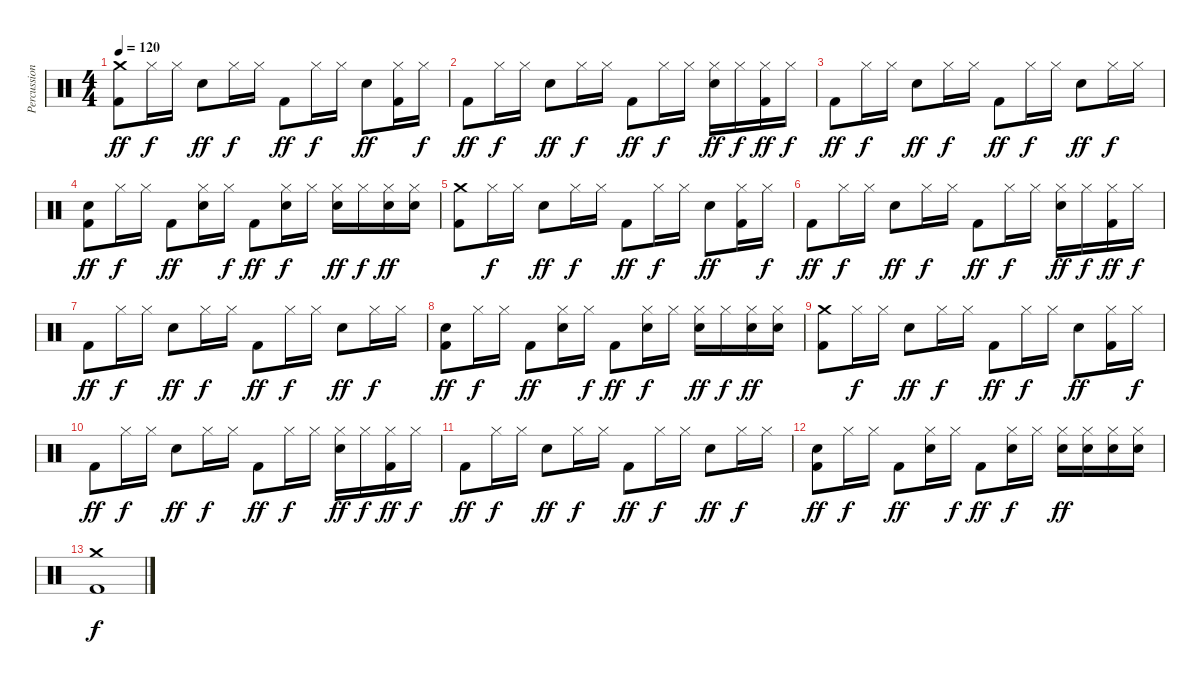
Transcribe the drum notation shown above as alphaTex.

\track ("Percussion" "Percussion") {instrument percussion}
\staff {score}
\articulation defaults
\ts (4 4)
\tempo 120
\clef neutral
\ks c
("Crash medium (hit)" "Kick (hit) 2").8{dy ff} "Hi-Hat (closed)".16{dy f} "Hi-Hat (closed)".16 "Electric Snare (hit)".8{dy ff} "Hi-Hat (closed)".16{dy f} "Hi-Hat (closed)".16 "Kick (hit) 2".8{dy ff} "Hi-Hat (closed)".16{dy f} "Hi-Hat (closed)".16 "Electric Snare (hit)".8{dy ff} ("Hi-Hat (closed)" "Kick (hit) 2").16 "Hi-Hat (closed)".16{dy f} |
"Kick (hit) 2".8{dy ff} "Hi-Hat (closed)".16{dy f} "Hi-Hat (closed)".16 "Electric Snare (hit)".8{dy ff} "Hi-Hat (closed)".16{dy f} "Hi-Hat (closed)".16 "Kick (hit) 2".8{dy ff} "Hi-Hat (closed)".16{dy f} "Hi-Hat (closed)".16 ("Hi-Hat (closed)" "Electric Snare (hit)").16{dy ff} "Hi-Hat (closed)".16{dy f} ("Hi-Hat (closed)" "Kick (hit) 2").16{dy ff} "Hi-Hat (closed)".16{dy f} |
"Kick (hit) 2".8{dy ff} "Hi-Hat (closed)".16{dy f} "Hi-Hat (closed)".16 "Electric Snare (hit)".8{dy ff} "Hi-Hat (closed)".16{dy f} "Hi-Hat (closed)".16 "Kick (hit) 2".8{dy ff} "Hi-Hat (closed)".16{dy f} "Hi-Hat (closed)".16 "Electric Snare (hit)".8{dy ff} "Hi-Hat (closed)".16{dy f} "Hi-Hat (closed)".16 |
("Electric Snare (hit)" "Kick (hit) 2").8{dy ff} "Hi-Hat (closed)".16{dy f} "Hi-Hat (closed)".16 "Kick (hit) 2".8{dy ff} ("Hi-Hat (closed)" "Electric Snare (hit)").16 "Hi-Hat (closed)".16{dy f} "Kick (hit) 2".8{dy ff} ("Hi-Hat (closed)" "Electric Snare (hit)").16{dy f} "Hi-Hat (closed)".16 ("Hi-Hat (closed)" "Electric Snare (hit)").16{dy ff} "Hi-Hat (closed)".16{dy f} ("Hi-Hat (closed)" "Electric Snare (hit)").16{dy ff} ("Hi-Hat (closed)" "Electric Snare (hit)").16 |
("Crash medium (hit)" "Kick (hit) 2").8 "Hi-Hat (closed)".16{dy f} "Hi-Hat (closed)".16 "Electric Snare (hit)".8{dy ff} "Hi-Hat (closed)".16{dy f} "Hi-Hat (closed)".16 "Kick (hit) 2".8{dy ff} "Hi-Hat (closed)".16{dy f} "Hi-Hat (closed)".16 "Electric Snare (hit)".8{dy ff} ("Hi-Hat (closed)" "Kick (hit) 2").16 "Hi-Hat (closed)".16{dy f} |
"Kick (hit) 2".8{dy ff} "Hi-Hat (closed)".16{dy f} "Hi-Hat (closed)".16 "Electric Snare (hit)".8{dy ff} "Hi-Hat (closed)".16{dy f} "Hi-Hat (closed)".16 "Kick (hit) 2".8{dy ff} "Hi-Hat (closed)".16{dy f} "Hi-Hat (closed)".16 ("Hi-Hat (closed)" "Electric Snare (hit)").16{dy ff} "Hi-Hat (closed)".16{dy f} ("Hi-Hat (closed)" "Kick (hit) 2").16{dy ff} "Hi-Hat (closed)".16{dy f} |
"Kick (hit) 2".8{dy ff} "Hi-Hat (closed)".16{dy f} "Hi-Hat (closed)".16 "Electric Snare (hit)".8{dy ff} "Hi-Hat (closed)".16{dy f} "Hi-Hat (closed)".16 "Kick (hit) 2".8{dy ff} "Hi-Hat (closed)".16{dy f} "Hi-Hat (closed)".16 "Electric Snare (hit)".8{dy ff} "Hi-Hat (closed)".16{dy f} "Hi-Hat (closed)".16 |
("Electric Snare (hit)" "Kick (hit) 2").8{dy ff} "Hi-Hat (closed)".16{dy f} "Hi-Hat (closed)".16 "Kick (hit) 2".8{dy ff} ("Hi-Hat (closed)" "Electric Snare (hit)").16 "Hi-Hat (closed)".16{dy f} "Kick (hit) 2".8{dy ff} ("Hi-Hat (closed)" "Electric Snare (hit)").16{dy f} "Hi-Hat (closed)".16 ("Hi-Hat (closed)" "Electric Snare (hit)").16{dy ff} "Hi-Hat (closed)".16{dy f} ("Hi-Hat (closed)" "Electric Snare (hit)").16{dy ff} ("Hi-Hat (closed)" "Electric Snare (hit)").16 |
("Crash medium (hit)" "Kick (hit) 2").8 "Hi-Hat (closed)".16{dy f} "Hi-Hat (closed)".16 "Electric Snare (hit)".8{dy ff} "Hi-Hat (closed)".16{dy f} "Hi-Hat (closed)".16 "Kick (hit) 2".8{dy ff} "Hi-Hat (closed)".16{dy f} "Hi-Hat (closed)".16 "Electric Snare (hit)".8{dy ff} ("Hi-Hat (closed)" "Kick (hit) 2").16 "Hi-Hat (closed)".16{dy f} |
"Kick (hit) 2".8{dy ff} "Hi-Hat (closed)".16{dy f} "Hi-Hat (closed)".16 "Electric Snare (hit)".8{dy ff} "Hi-Hat (closed)".16{dy f} "Hi-Hat (closed)".16 "Kick (hit) 2".8{dy ff} "Hi-Hat (closed)".16{dy f} "Hi-Hat (closed)".16 ("Hi-Hat (closed)" "Electric Snare (hit)").16{dy ff} "Hi-Hat (closed)".16{dy f} ("Hi-Hat (closed)" "Kick (hit) 2").16{dy ff} "Hi-Hat (closed)".16{dy f} |
"Kick (hit) 2".8{dy ff} "Hi-Hat (closed)".16{dy f} "Hi-Hat (closed)".16 "Electric Snare (hit)".8{dy ff} "Hi-Hat (closed)".16{dy f} "Hi-Hat (closed)".16 "Kick (hit) 2".8{dy ff} "Hi-Hat (closed)".16{dy f} "Hi-Hat (closed)".16 "Electric Snare (hit)".8{dy ff} "Hi-Hat (closed)".16{dy f} "Hi-Hat (closed)".16 |
("Electric Snare (hit)" "Kick (hit) 2").8{dy ff} "Hi-Hat (closed)".16{dy f} "Hi-Hat (closed)".16 "Kick (hit) 2".8{dy ff} ("Hi-Hat (closed)" "Electric Snare (hit)").16 "Hi-Hat (closed)".16{dy f} "Kick (hit) 2".8{dy ff} ("Hi-Hat (closed)" "Electric Snare (hit)").16{dy f} "Hi-Hat (closed)".16 ("Hi-Hat (closed)" "Electric Snare (hit)").16{dy ff} ("Hi-Hat (closed)" "Electric Snare (hit)").16 ("Hi-Hat (closed)" "Electric Snare (hit)").16 ("Hi-Hat (closed)" "Electric Snare (hit)").16 |
("Crash medium (hit)" "Kick (hit) 2").1{dy f}
